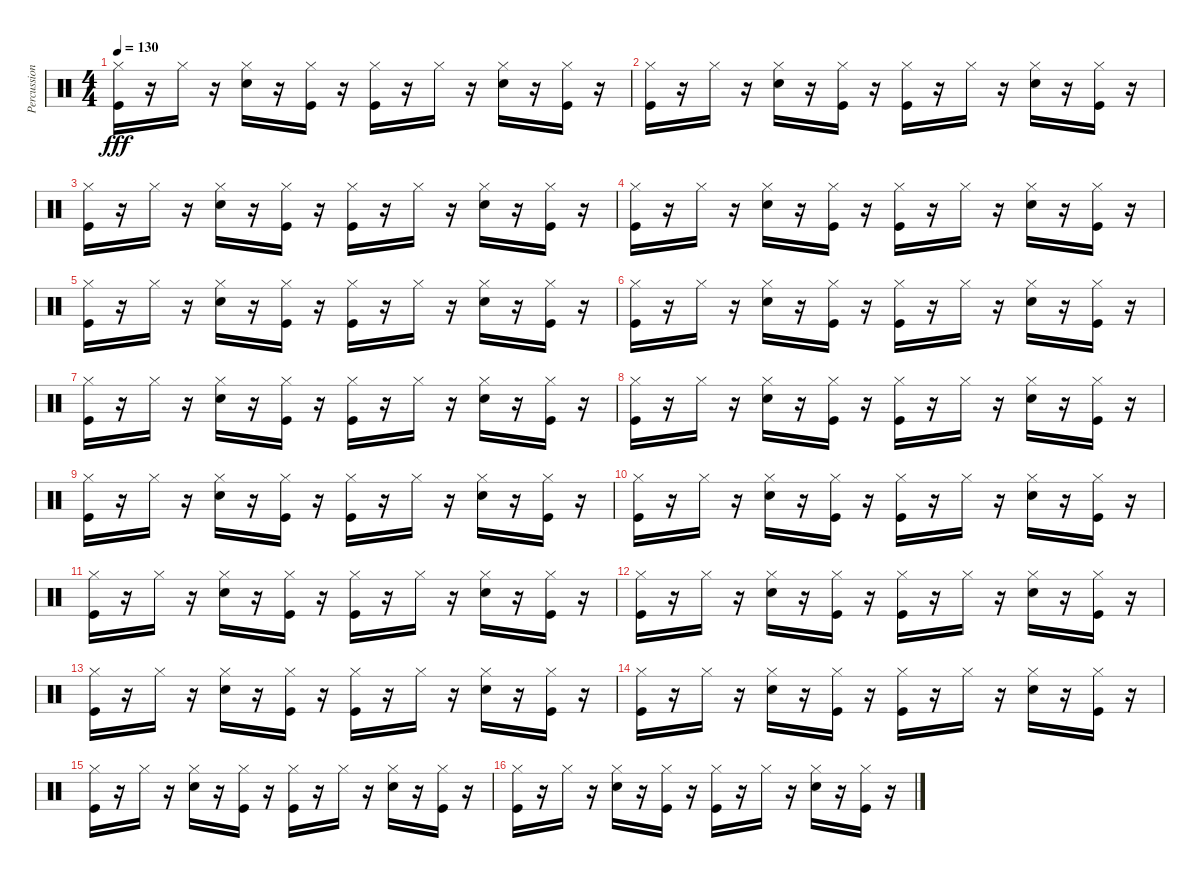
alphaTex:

\track ("Percussion" "Percussion") {instrument percussion}
\staff {score}
\articulation defaults
\ts (4 4)
\tempo 130
\clef neutral
\ks c
("Kick (hit)" "Hi-Hat (closed)").16{dy fff} r.16 "Hi-Hat (closed)".16 r.16 ("Hi-Hat (closed)" "Snare (hit) 2").16 r.16 ("Kick (hit)" "Hi-Hat (closed)").16 r.16 ("Kick (hit)" "Hi-Hat (closed)").16 r.16 "Hi-Hat (closed)".16 r.16 ("Hi-Hat (closed)" "Snare (hit) 2").16 r.16 ("Kick (hit)" "Hi-Hat (closed)").16 r.16 |
("Kick (hit)" "Hi-Hat (closed)").16 r.16 "Hi-Hat (closed)".16 r.16 ("Hi-Hat (closed)" "Snare (hit) 2").16 r.16 ("Kick (hit)" "Hi-Hat (closed)").16 r.16 ("Kick (hit)" "Hi-Hat (closed)").16 r.16 "Hi-Hat (closed)".16 r.16 ("Hi-Hat (closed)" "Snare (hit) 2").16 r.16 ("Kick (hit)" "Hi-Hat (closed)").16 r.16 |
("Kick (hit)" "Hi-Hat (closed)").16 r.16 "Hi-Hat (closed)".16 r.16 ("Hi-Hat (closed)" "Snare (hit) 2").16 r.16 ("Kick (hit)" "Hi-Hat (closed)").16 r.16 ("Kick (hit)" "Hi-Hat (closed)").16 r.16 "Hi-Hat (closed)".16 r.16 ("Hi-Hat (closed)" "Snare (hit) 2").16 r.16 ("Kick (hit)" "Hi-Hat (closed)").16 r.16 |
("Kick (hit)" "Hi-Hat (closed)").16 r.16 "Hi-Hat (closed)".16 r.16 ("Hi-Hat (closed)" "Snare (hit) 2").16 r.16 ("Kick (hit)" "Hi-Hat (closed)").16 r.16 ("Kick (hit)" "Hi-Hat (closed)").16 r.16 "Hi-Hat (closed)".16 r.16 ("Hi-Hat (closed)" "Snare (hit) 2").16 r.16 ("Kick (hit)" "Hi-Hat (closed)").16 r.16 |
("Kick (hit)" "Hi-Hat (closed)").16 r.16 "Hi-Hat (closed)".16 r.16 ("Hi-Hat (closed)" "Snare (hit) 2").16 r.16 ("Kick (hit)" "Hi-Hat (closed)").16 r.16 ("Kick (hit)" "Hi-Hat (closed)").16 r.16 "Hi-Hat (closed)".16 r.16 ("Hi-Hat (closed)" "Snare (hit) 2").16 r.16 ("Kick (hit)" "Hi-Hat (closed)").16 r.16 |
("Kick (hit)" "Hi-Hat (closed)").16 r.16 "Hi-Hat (closed)".16 r.16 ("Hi-Hat (closed)" "Snare (hit) 2").16 r.16 ("Kick (hit)" "Hi-Hat (closed)").16 r.16 ("Kick (hit)" "Hi-Hat (closed)").16 r.16 "Hi-Hat (closed)".16 r.16 ("Hi-Hat (closed)" "Snare (hit) 2").16 r.16 ("Kick (hit)" "Hi-Hat (closed)").16 r.16 |
("Kick (hit)" "Hi-Hat (closed)").16 r.16 "Hi-Hat (closed)".16 r.16 ("Hi-Hat (closed)" "Snare (hit) 2").16 r.16 ("Kick (hit)" "Hi-Hat (closed)").16 r.16 ("Kick (hit)" "Hi-Hat (closed)").16 r.16 "Hi-Hat (closed)".16 r.16 ("Hi-Hat (closed)" "Snare (hit) 2").16 r.16 ("Kick (hit)" "Hi-Hat (closed)").16 r.16 |
("Kick (hit)" "Hi-Hat (closed)").16 r.16 "Hi-Hat (closed)".16 r.16 ("Hi-Hat (closed)" "Snare (hit) 2").16 r.16 ("Kick (hit)" "Hi-Hat (closed)").16 r.16 ("Kick (hit)" "Hi-Hat (closed)").16 r.16 "Hi-Hat (closed)".16 r.16 ("Hi-Hat (closed)" "Snare (hit) 2").16 r.16 ("Kick (hit)" "Hi-Hat (closed)").16 r.16 |
("Kick (hit)" "Hi-Hat (closed)").16 r.16 "Hi-Hat (closed)".16 r.16 ("Hi-Hat (closed)" "Snare (hit) 2").16 r.16 ("Kick (hit)" "Hi-Hat (closed)").16 r.16 ("Kick (hit)" "Hi-Hat (closed)").16 r.16 "Hi-Hat (closed)".16 r.16 ("Hi-Hat (closed)" "Snare (hit) 2").16 r.16 ("Kick (hit)" "Hi-Hat (closed)").16 r.16 |
("Kick (hit)" "Hi-Hat (closed)").16 r.16 "Hi-Hat (closed)".16 r.16 ("Hi-Hat (closed)" "Snare (hit) 2").16 r.16 ("Kick (hit)" "Hi-Hat (closed)").16 r.16 ("Kick (hit)" "Hi-Hat (closed)").16 r.16 "Hi-Hat (closed)".16 r.16 ("Hi-Hat (closed)" "Snare (hit) 2").16 r.16 ("Kick (hit)" "Hi-Hat (closed)").16 r.16 |
("Kick (hit)" "Hi-Hat (closed)").16 r.16 "Hi-Hat (closed)".16 r.16 ("Hi-Hat (closed)" "Snare (hit) 2").16 r.16 ("Kick (hit)" "Hi-Hat (closed)").16 r.16 ("Kick (hit)" "Hi-Hat (closed)").16 r.16 "Hi-Hat (closed)".16 r.16 ("Hi-Hat (closed)" "Snare (hit) 2").16 r.16 ("Kick (hit)" "Hi-Hat (closed)").16 r.16 |
("Kick (hit)" "Hi-Hat (closed)").16 r.16 "Hi-Hat (closed)".16 r.16 ("Hi-Hat (closed)" "Snare (hit) 2").16 r.16 ("Kick (hit)" "Hi-Hat (closed)").16 r.16 ("Kick (hit)" "Hi-Hat (closed)").16 r.16 "Hi-Hat (closed)".16 r.16 ("Hi-Hat (closed)" "Snare (hit) 2").16 r.16 ("Kick (hit)" "Hi-Hat (closed)").16 r.16 |
("Kick (hit)" "Hi-Hat (closed)").16 r.16 "Hi-Hat (closed)".16 r.16 ("Hi-Hat (closed)" "Snare (hit) 2").16 r.16 ("Kick (hit)" "Hi-Hat (closed)").16 r.16 ("Kick (hit)" "Hi-Hat (closed)").16 r.16 "Hi-Hat (closed)".16 r.16 ("Hi-Hat (closed)" "Snare (hit) 2").16 r.16 ("Kick (hit)" "Hi-Hat (closed)").16 r.16 |
("Kick (hit)" "Hi-Hat (closed)").16 r.16 "Hi-Hat (closed)".16 r.16 ("Hi-Hat (closed)" "Snare (hit) 2").16 r.16 ("Kick (hit)" "Hi-Hat (closed)").16 r.16 ("Kick (hit)" "Hi-Hat (closed)").16 r.16 "Hi-Hat (closed)".16 r.16 ("Hi-Hat (closed)" "Snare (hit) 2").16 r.16 ("Kick (hit)" "Hi-Hat (closed)").16 r.16 |
("Kick (hit)" "Hi-Hat (closed)").16 r.16 "Hi-Hat (closed)".16 r.16 ("Hi-Hat (closed)" "Snare (hit) 2").16 r.16 ("Kick (hit)" "Hi-Hat (closed)").16 r.16 ("Kick (hit)" "Hi-Hat (closed)").16 r.16 "Hi-Hat (closed)".16 r.16 ("Hi-Hat (closed)" "Snare (hit) 2").16 r.16 ("Kick (hit)" "Hi-Hat (closed)").16 r.16 |
("Kick (hit)" "Hi-Hat (closed)").16 r.16 "Hi-Hat (closed)".16 r.16 ("Hi-Hat (closed)" "Snare (hit) 2").16 r.16 ("Kick (hit)" "Hi-Hat (closed)").16 r.16 ("Kick (hit)" "Hi-Hat (closed)").16 r.16 "Hi-Hat (closed)".16 r.16 ("Hi-Hat (closed)" "Snare (hit) 2").16 r.16 ("Kick (hit)" "Hi-Hat (closed)").16 r.16
